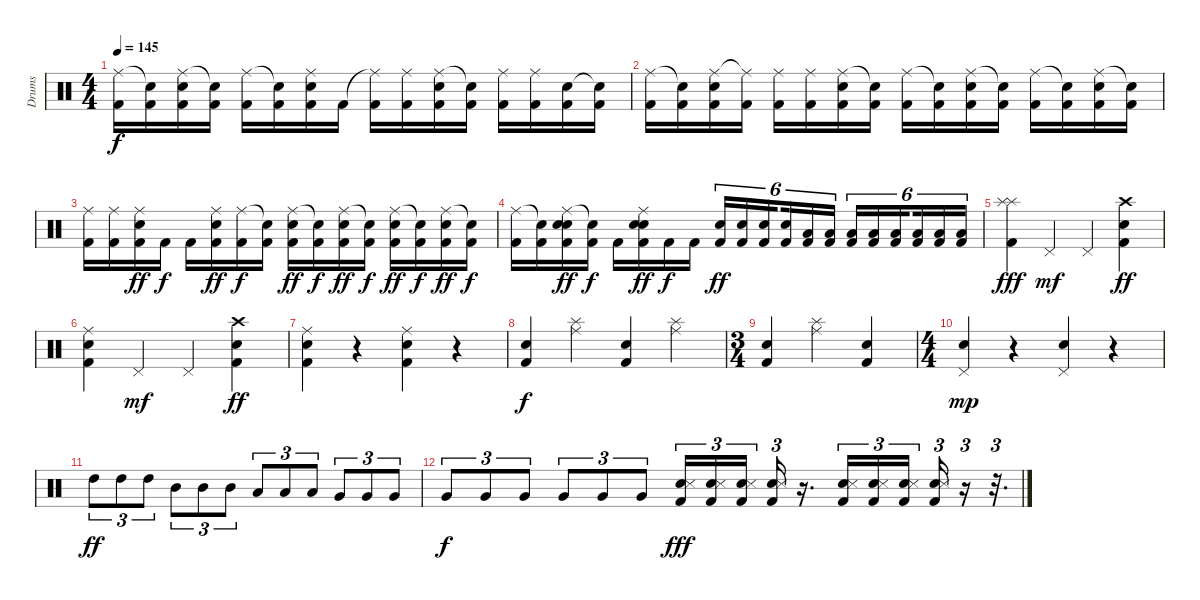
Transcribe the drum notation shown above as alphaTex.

\track ("Drums" "Drums") {instrument percussion}
\staff {score}
\articulation defaults
\ts (4 4)
\tempo 145
\clef neutral
\ks c
("Ride (middle)" "Kick (hit) 2").16{dy f} ("Snare (hit)"{t} "Kick (hit) 2").16 ("Ride (middle)" "Electric Snare (hit)" "Kick (hit) 2").16 ("Snare (hit)"{t} "Kick (hit) 2").16 ("Ride (middle)" "Kick (hit) 2").16 ("Snare (hit)"{t} "Kick (hit) 2").16 ("Ride (middle)" "Electric Snare (hit)" "Kick (hit) 2").16 "Kick (hit) 2".16 ("Ride (middle)"{t} "Kick (hit) 2").16 ("Ride (middle)" "Kick (hit) 2").16 ("Ride (middle)" "Electric Snare (hit)" "Kick (hit) 2").16 ("Snare (hit)"{t} "Kick (hit) 2").16 ("Ride (middle)" "Kick (hit) 2").16 ("Ride (middle)" "Kick (hit) 2").16 ("Electric Snare (hit)" "Kick (hit) 2").16 ("Snare (hit)"{t} "Kick (hit) 2").16 |
("Ride (middle)" "Kick (hit) 2").16 ("Snare (hit)"{t} "Kick (hit) 2").16 ("Ride (middle)" "Electric Snare (hit)" "Kick (hit) 2").16 ("Ride (middle)"{t} "Kick (hit) 2").16 ("Ride (middle)" "Kick (hit) 2").16 ("Ride (middle)" "Kick (hit) 2").16 ("Ride (middle)" "Electric Snare (hit)" "Kick (hit) 2").16 ("Snare (hit)"{t} "Kick (hit) 2").16 ("Ride (middle)" "Kick (hit) 2").16 ("Snare (hit)"{t} "Kick (hit) 2").16 ("Ride (middle)" "Electric Snare (hit)" "Kick (hit) 2").16 ("Snare (hit)"{t} "Kick (hit) 2").16 ("Ride (middle)" "Kick (hit) 2").16 ("Snare (hit)"{t} "Kick (hit) 2").16 ("Ride (middle)" "Electric Snare (hit)" "Kick (hit) 2").16 ("Snare (hit)"{t} "Kick (hit) 2").16 |
("Ride (middle)" "Kick (hit) 2").16 ("Ride (middle)" "Kick (hit) 2").16 ("Ride (middle)" "Snare (hit) 2" "Kick (hit) 2").16{dy ff} "Kick (hit) 2".16{dy f} "Kick (hit) 2".16 ("Ride (middle)" "Snare (hit) 2" "Kick (hit) 2").16{dy ff} ("Ride (middle)" "Kick (hit) 2").16{dy f} ("Snare (hit)"{t} "Kick (hit) 2").16 ("Ride (middle)" "Snare (hit) 2" "Kick (hit) 2").16{dy ff} ("Snare (hit)"{t} "Kick (hit) 2").16{dy f} ("Ride (middle)" "Snare (hit) 2" "Kick (hit) 2").16{dy ff} ("Snare (hit)"{t} "Kick (hit) 2").16{dy f} ("Ride (middle)" "Snare (hit) 2" "Kick (hit) 2").16{dy ff} ("Snare (hit)"{t} "Kick (hit) 2").16{dy f} ("Ride (middle)" "Snare (hit) 2" "Kick (hit) 2").16{dy ff} ("Snare (hit)"{t} "Kick (hit) 2").16{dy f} |
("Ride (middle)" "Kick (hit) 2").16 ("Snare (hit)"{t} "Kick (hit) 2").16 ("Ride (middle)" "Snare (hit) 2" "Electric Snare (hit)" "Kick (hit) 2").16{dy ff} ("Snare (hit)"{t} "Kick (hit) 2").16{dy f} "Kick (hit) 2".16 ("Ride (middle)" "Snare (hit) 2" "Electric Snare (hit)" "Kick (hit) 2").16{dy ff} "Kick (hit) 2".16{dy f} "Kick (hit) 2".16 ("Snare (hit) 2" "Kick (hit) 2").16{tu (6 4) dy ff} ("Snare (hit) 2" "Kick (hit) 2").16{tu (6 4)} ("Snare (hit) 2" "Kick (hit) 2").16{tu (6 4) beam splitsecondary} ("Snare (hit) 2" "Kick (hit) 2").16{tu (6 4)} ("Low Tom (hit)" "Kick (hit) 2").16{tu (6 4)} ("Low Tom (hit)" "Kick (hit) 2").16{tu (6 4)} ("Low Tom (hit)" "Kick (hit) 2").16{tu (6 4)} ("Low Tom (hit)" "Kick (hit) 2").16{tu (6 4)} ("Low Tom (hit)" "Kick (hit) 2").16{tu (6 4) beam splitsecondary} ("Low Tom (hit)" "Kick (hit) 2").16{tu (6 4)} ("Low Tom (hit)" "Kick (hit) 2").16{tu (6 4)} ("Low Tom (hit)" "Kick (hit) 2").16{tu (6 4)} |
("Splash (hit)" "Splash (hit)" "Kick (hit) 2").4{dy fff} "Pedal Hi-Hat (hit)".4{dy mf} "Pedal Hi-Hat (hit)".4 ("Crash high (hit)" "Electric Snare (hit)" "Kick (hit) 2").4{dy ff} |
("Ride (middle)" "Electric Snare (hit)" "Kick (hit) 2").4 "Pedal Hi-Hat (hit)".4{dy mf} "Pedal Hi-Hat (hit)".4 ("Crash high (hit)" "Electric Snare (hit)" "Kick (hit) 2").4{dy ff} |
("Ride (middle)" "Electric Snare (hit)" "Kick (hit) 2").4 r.4 ("Ride (middle)" "Electric Snare (hit)" "Kick (hit) 2").4 r.4 |
("Snare (hit) 2" "Kick (hit) 2").4{dy f} ("Ride (middle)" "Splash (hit)").4 ("Snare (hit) 2" "Kick (hit) 2").4 ("Ride (middle)" "Splash (hit)").4 |
\ts (3 4)
("Snare (hit) 2" "Kick (hit) 2").4 ("Ride (middle)" "Splash (hit)").4 ("Snare (hit) 2" "Kick (hit) 2").4 |
\ts (4 4)
("Pedal Hi-Hat (hit)" "Snare (hit) 2").4{dy mp} r.4 ("Pedal Hi-Hat (hit)" "Snare (hit) 2").4 r.4 |
"High Tom (hit)".8{tu (3 2) dy ff} "High Tom (hit)".8{tu (3 2)} "High Tom (hit)".8{tu (3 2)} "Mid Tom (hit)".8{tu (3 2)} "Mid Tom (hit)".8{tu (3 2)} "Mid Tom (hit)".8{tu (3 2)} "Low Tom (hit)".8{tu (3 2)} "Low Tom (hit)".8{tu (3 2)} "Low Tom (hit)".8{tu (3 2)} "Very Low Tom (hit)".8{tu (3 2)} "Very Low Tom (hit)".8{tu (3 2)} "Very Low Tom (hit)".8{tu (3 2)} |
"Very Low Tom (hit)".8{tu (3 2) dy f} "Very Low Tom (hit)".8{tu (3 2)} "Very Low Tom (hit)".8{tu (3 2)} "Very Low Tom (hit)".8{tu (3 2)} "Very Low Tom (hit)".8{tu (3 2)} "Very Low Tom (hit)".8{tu (3 2)} ("Snare (hit) 2" "Snare (side stick) 3" "Kick (hit) 2").16{tu (3 2) dy fff} ("Snare (hit) 2" "Snare (side stick) 3" "Kick (hit) 2").16{tu (3 2)} ("Snare (hit) 2" "Snare (side stick) 3" "Kick (hit) 2").16{tu (3 2) beam splitsecondary} ("Snare (hit) 2" "Snare (side stick) 3" "Kick (hit) 2").16{tu (3 2)} r.16{d} ("Snare (hit) 2" "Snare (side stick) 3" "Kick (hit) 2").16{tu (3 2)} ("Snare (hit) 2" "Snare (side stick) 3" "Kick (hit) 2").16{tu (3 2)} ("Snare (hit) 2" "Snare (side stick) 3" "Kick (hit) 2").16{tu (3 2) beam splitsecondary} ("Snare (hit) 2" "Snare (side stick) 3" "Kick (hit) 2").16{tu (3 2)} r.16{tu (3 2)} r.32{d tu (3 2)}
